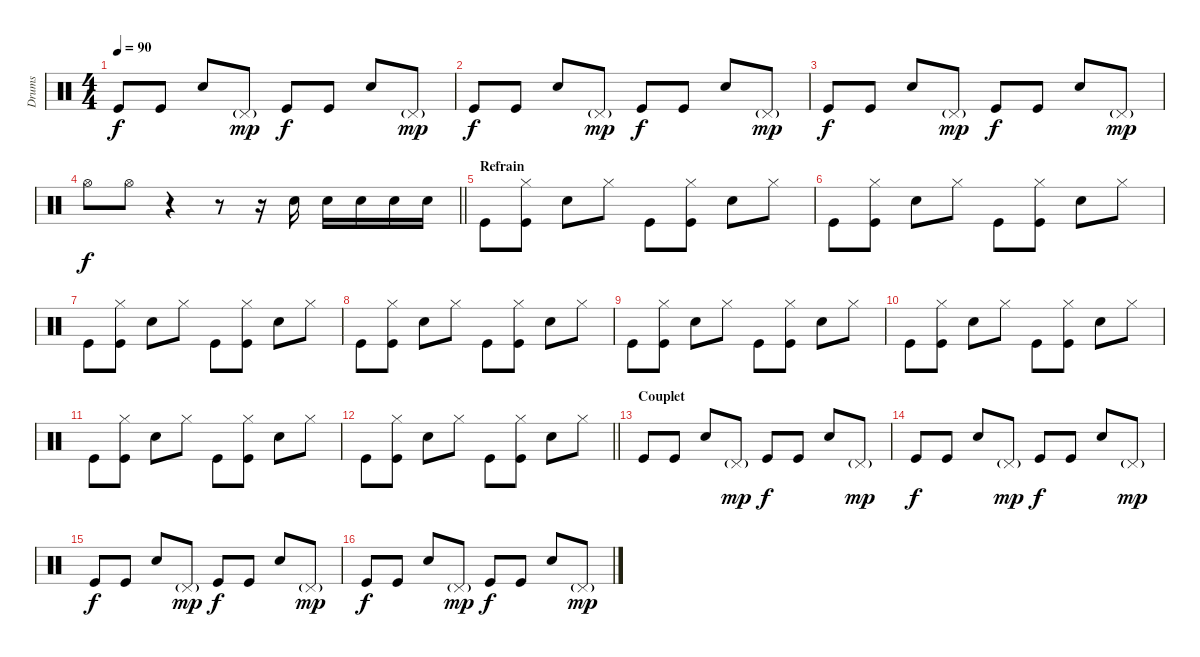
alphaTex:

\track ("Drums" "Drums") {instrument percussion}
\staff {score}
\articulation defaults
\ts (4 4)
\tempo 90
\clef neutral
\ks c "Kick (hit)".8{dy f} "Kick (hit)".8 "Snare (hit) 2".8 "Pedal Hi-Hat (hit)"{g}.8{dy mp} "Kick (hit)".8{dy f} "Kick (hit)".8 "Snare (hit) 2".8 "Pedal Hi-Hat (hit)"{g}.8{dy mp}
|
"Kick (hit)".8{dy f} "Kick (hit)".8 "Snare (hit) 2".8 "Pedal Hi-Hat (hit)"{g}.8{dy mp} "Kick (hit)".8{dy f} "Kick (hit)".8 "Snare (hit) 2".8 "Pedal Hi-Hat (hit)"{g}.8{dy mp} |
"Kick (hit)".8{dy f} "Kick (hit)".8 "Snare (hit) 2".8 "Pedal Hi-Hat (hit)"{g}.8{dy mp} "Kick (hit)".8{dy f} "Kick (hit)".8 "Snare (hit) 2".8 "Pedal Hi-Hat (hit)"{g}.8{dy mp} |
\barLineRight lightlight "Hi-Hat (open)".8{dy f} "Hi-Hat (open)".8
r.4 r.8 r.16 "Snare (hit) 2".16 "Snare (hit) 2".16 "Snare (hit) 2".16 "Snare (hit) 2".16 "Snare (hit) 2".16 |
\section ("" "Refrain")
"Kick (hit)".8 ("Hi-Hat (closed)" "Kick (hit)").8 "Snare (hit) 2".8 "Hi-Hat (closed)".8 "Kick (hit)".8 ("Hi-Hat (closed)" "Kick (hit)").8 "Snare (hit) 2".8 "Hi-Hat (closed)".8 |
"Kick (hit)".8 ("Hi-Hat (closed)" "Kick (hit)").8 "Snare (hit) 2".8 "Hi-Hat (closed)".8 "Kick (hit)".8 ("Hi-Hat (closed)" "Kick (hit)").8 "Snare (hit) 2".8 "Hi-Hat (closed)".8 |
"Kick (hit)".8 ("Hi-Hat (closed)" "Kick (hit)").8 "Snare (hit) 2".8 "Hi-Hat (closed)".8 "Kick (hit)".8 ("Hi-Hat (closed)" "Kick (hit)").8 "Snare (hit) 2".8 "Hi-Hat (closed)".8 |
"Kick (hit)".8 ("Hi-Hat (closed)" "Kick (hit)").8 "Snare (hit) 2".8 "Hi-Hat (closed)".8 "Kick (hit)".8 ("Hi-Hat (closed)" "Kick (hit)").8 "Snare (hit) 2".8 "Hi-Hat (closed)".8 |
"Kick (hit)".8 ("Hi-Hat (closed)" "Kick (hit)").8 "Snare (hit) 2".8 "Hi-Hat (closed)".8 "Kick (hit)".8 ("Hi-Hat (closed)" "Kick (hit)").8 "Snare (hit) 2".8 "Hi-Hat (closed)".8 |
"Kick (hit)".8 ("Hi-Hat (closed)" "Kick (hit)").8 "Snare (hit) 2".8 "Hi-Hat (closed)".8 "Kick (hit)".8 ("Hi-Hat (closed)" "Kick (hit)").8 "Snare (hit) 2".8 "Hi-Hat (closed)".8 |
"Kick (hit)".8 ("Hi-Hat (closed)" "Kick (hit)").8 "Snare (hit) 2".8 "Hi-Hat (closed)".8 "Kick (hit)".8 ("Hi-Hat (closed)" "Kick (hit)").8 "Snare (hit) 2".8 "Hi-Hat (closed)".8 |
\barLineRight lightlight "Kick (hit)".8
("Hi-Hat (closed)" "Kick (hit)").8 "Snare (hit) 2".8 "Hi-Hat (closed)".8 "Kick (hit)".8 ("Hi-Hat (closed)" "Kick (hit)").8 "Snare (hit) 2".8 "Hi-Hat (closed)".8 |
\section ("" "Couplet")
"Kick (hit)".8 "Kick (hit)".8 "Snare (hit) 2".8 "Pedal Hi-Hat (hit)"{g}.8{dy mp} "Kick (hit)".8{dy f} "Kick (hit)".8 "Snare (hit) 2".8 "Pedal Hi-Hat (hit)"{g}.8{dy mp} |
"Kick (hit)".8{dy f} "Kick (hit)".8 "Snare (hit) 2".8 "Pedal Hi-Hat (hit)"{g}.8{dy mp} "Kick (hit)".8{dy f} "Kick (hit)".8 "Snare (hit) 2".8 "Pedal Hi-Hat (hit)"{g}.8{dy mp} |
"Kick (hit)".8{dy f} "Kick (hit)".8 "Snare (hit) 2".8 "Pedal Hi-Hat (hit)"{g}.8{dy mp} "Kick (hit)".8{dy f} "Kick (hit)".8 "Snare (hit) 2".8 "Pedal Hi-Hat (hit)"{g}.8{dy mp} |
"Kick (hit)".8{dy f} "Kick (hit)".8 "Snare (hit) 2".8 "Pedal Hi-Hat (hit)"{g}.8{dy mp} "Kick (hit)".8{dy f} "Kick (hit)".8 "Snare (hit) 2".8 "Pedal Hi-Hat (hit)"{g}.8{dy mp}
